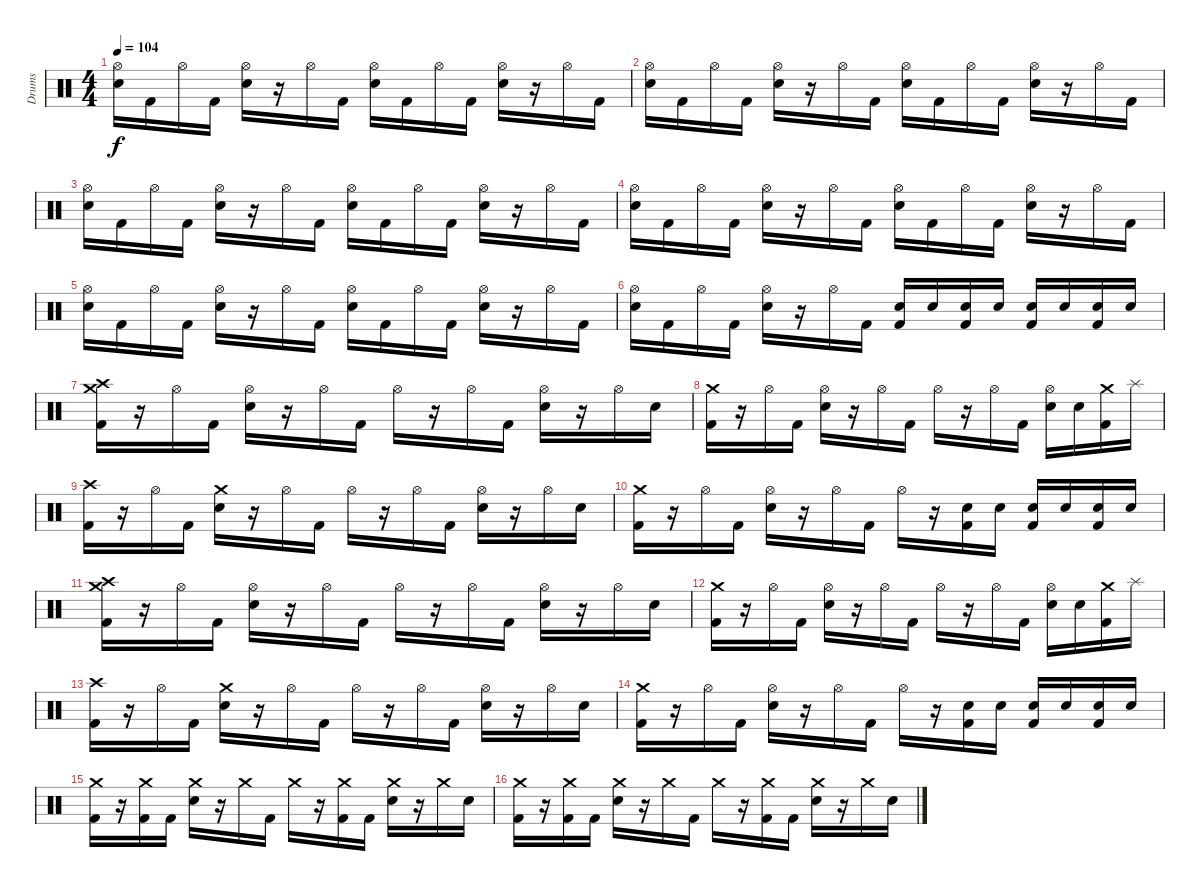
\track ("Drums" "Drums") {instrument percussion}
\staff {score}
\articulation defaults
\ts (4 4)
\tempo 104
\clef neutral
\ks c
("Hi-Hat (open)" "Snare (hit) 2").16{dy f} "Kick (hit) 2".16 "Hi-Hat (open)".16 "Kick (hit) 2".16 ("Hi-Hat (open)" "Snare (hit) 2").16 r.16 "Hi-Hat (open)".16 "Kick (hit) 2".16 ("Hi-Hat (open)" "Snare (hit) 2").16 "Kick (hit) 2".16 "Hi-Hat (open)".16 "Kick (hit) 2".16 ("Hi-Hat (open)" "Snare (hit) 2").16 r.16 "Hi-Hat (open)".16 "Kick (hit) 2".16 |
("Hi-Hat (open)" "Snare (hit) 2").16 "Kick (hit) 2".16 "Hi-Hat (open)".16 "Kick (hit) 2".16 ("Hi-Hat (open)" "Snare (hit) 2").16 r.16 "Hi-Hat (open)".16 "Kick (hit) 2".16 ("Hi-Hat (open)" "Snare (hit) 2").16 "Kick (hit) 2".16 "Hi-Hat (open)".16 "Kick (hit) 2".16 ("Hi-Hat (open)" "Snare (hit) 2").16 r.16 "Hi-Hat (open)".16 "Kick (hit) 2".16 |
("Hi-Hat (open)" "Snare (hit) 2").16 "Kick (hit) 2".16 "Hi-Hat (open)".16 "Kick (hit) 2".16 ("Hi-Hat (open)" "Snare (hit) 2").16 r.16 "Hi-Hat (open)".16 "Kick (hit) 2".16 ("Hi-Hat (open)" "Snare (hit) 2").16 "Kick (hit) 2".16 "Hi-Hat (open)".16 "Kick (hit) 2".16 ("Hi-Hat (open)" "Snare (hit) 2").16 r.16 "Hi-Hat (open)".16 "Kick (hit) 2".16 |
("Hi-Hat (open)" "Snare (hit) 2").16 "Kick (hit) 2".16 "Hi-Hat (open)".16 "Kick (hit) 2".16 ("Hi-Hat (open)" "Snare (hit) 2").16 r.16 "Hi-Hat (open)".16 "Kick (hit) 2".16 ("Hi-Hat (open)" "Snare (hit) 2").16 "Kick (hit) 2".16 "Hi-Hat (open)".16 "Kick (hit) 2".16 ("Hi-Hat (open)" "Snare (hit) 2").16 r.16 "Hi-Hat (open)".16 "Kick (hit) 2".16 |
("Hi-Hat (open)" "Snare (hit) 2").16 "Kick (hit) 2".16 "Hi-Hat (open)".16 "Kick (hit) 2".16 ("Hi-Hat (open)" "Snare (hit) 2").16 r.16 "Hi-Hat (open)".16 "Kick (hit) 2".16 ("Hi-Hat (open)" "Snare (hit) 2").16 "Kick (hit) 2".16 "Hi-Hat (open)".16 "Kick (hit) 2".16 ("Hi-Hat (open)" "Snare (hit) 2").16 r.16 "Hi-Hat (open)".16 "Kick (hit) 2".16 |
("Hi-Hat (open)" "Snare (hit) 2").16 "Kick (hit) 2".16 "Hi-Hat (open)".16 "Kick (hit) 2".16 ("Hi-Hat (open)" "Snare (hit) 2").16 r.16 "Hi-Hat (open)".16 "Kick (hit) 2".16 ("Kick (hit) 2" "Snare (hit) 2").16 "Snare (hit) 2".16 ("Kick (hit) 2" "Snare (hit) 2").16 "Snare (hit) 2".16 ("Kick (hit) 2" "Snare (hit) 2").16 "Snare (hit) 2".16 ("Kick (hit) 2" "Snare (hit) 2").16 "Snare (hit) 2".16 |
("Crash high (hit)" "Crash medium (hit)" "Kick (hit) 2").16 r.16 "Hi-Hat (open)".16 "Kick (hit) 2".16 ("Hi-Hat (open)" "Snare (hit) 2").16 r.16 "Hi-Hat (open)".16 "Kick (hit) 2".16 "Hi-Hat (open)".16 r.16 "Hi-Hat (open)".16 "Kick (hit) 2".16 ("Hi-Hat (open)" "Snare (hit) 2").16 r.16 "Hi-Hat (open)".16 "Snare (hit) 2".16 |
("Crash medium (hit)" "Kick (hit) 2").16 r.16 "Hi-Hat (open)".16 "Kick (hit) 2".16 ("Hi-Hat (open)" "Snare (hit) 2").16 r.16 "Hi-Hat (open)".16 "Kick (hit) 2".16 "Hi-Hat (open)".16 r.16 "Hi-Hat (open)".16 "Kick (hit) 2".16 ("Hi-Hat (open)" "Snare (hit) 2").16 "Snare (hit) 2".16 ("Crash medium (hit)" "Kick (hit) 2").16 "Splash (hit)".16 |
("Crash high (hit)" "Kick (hit) 2").16 r.16 "Hi-Hat (open)".16 "Kick (hit) 2".16 ("Crash medium (hit)" "Snare (hit) 2").16 r.16 "Hi-Hat (open)".16 "Kick (hit) 2".16 "Hi-Hat (open)".16 r.16 "Hi-Hat (open)".16 "Kick (hit) 2".16 ("Hi-Hat (open)" "Snare (hit) 2").16 r.16 "Hi-Hat (open)".16 "Snare (hit) 2".16 |
("Crash medium (hit)" "Kick (hit) 2").16 r.16 "Hi-Hat (open)".16 "Kick (hit) 2".16 ("Hi-Hat (open)" "Snare (hit) 2").16 r.16 "Hi-Hat (open)".16 "Kick (hit) 2".16 "Hi-Hat (open)".16 r.16 ("Snare (hit) 2" "Kick (hit) 2").16 "Snare (hit) 2".16 ("Snare (hit) 2" "Kick (hit) 2").16 "Snare (hit) 2".16 ("Snare (hit) 2" "Kick (hit) 2").16 "Snare (hit) 2".16 |
("Crash high (hit)" "Crash medium (hit)" "Kick (hit) 2").16 r.16 "Hi-Hat (open)".16 "Kick (hit) 2".16 ("Hi-Hat (open)" "Snare (hit) 2").16 r.16 "Hi-Hat (open)".16 "Kick (hit) 2".16 "Hi-Hat (open)".16 r.16 "Hi-Hat (open)".16 "Kick (hit) 2".16 ("Hi-Hat (open)" "Snare (hit) 2").16 r.16 "Hi-Hat (open)".16 "Snare (hit) 2".16 |
("Crash medium (hit)" "Kick (hit) 2").16 r.16 "Hi-Hat (open)".16 "Kick (hit) 2".16 ("Hi-Hat (open)" "Snare (hit) 2").16 r.16 "Hi-Hat (open)".16 "Kick (hit) 2".16 "Hi-Hat (open)".16 r.16 "Hi-Hat (open)".16 "Kick (hit) 2".16 ("Hi-Hat (open)" "Snare (hit) 2").16 "Snare (hit) 2".16 ("Crash medium (hit)" "Kick (hit) 2").16 "Splash (hit)".16 |
("Crash high (hit)" "Kick (hit) 2").16 r.16 "Hi-Hat (open)".16 "Kick (hit) 2".16 ("Crash medium (hit)" "Snare (hit) 2").16 r.16 "Hi-Hat (open)".16 "Kick (hit) 2".16 "Hi-Hat (open)".16 r.16 "Hi-Hat (open)".16 "Kick (hit) 2".16 ("Hi-Hat (open)" "Snare (hit) 2").16 r.16 "Hi-Hat (open)".16 "Snare (hit) 2".16 |
("Crash medium (hit)" "Kick (hit) 2").16 r.16 "Hi-Hat (open)".16 "Kick (hit) 2".16 ("Hi-Hat (open)" "Snare (hit) 2").16 r.16 "Hi-Hat (open)".16 "Kick (hit) 2".16 "Hi-Hat (open)".16 r.16 ("Snare (hit) 2" "Kick (hit) 2").16 "Snare (hit) 2".16 ("Snare (hit) 2" "Kick (hit) 2").16 "Snare (hit) 2".16 ("Snare (hit) 2" "Kick (hit) 2").16 "Snare (hit) 2".16 |
("Crash medium (hit)" "Kick (hit) 2").16 r.16 ("Crash medium (hit)" "Kick (hit) 2").16 "Kick (hit) 2".16 ("Crash medium (hit)" "Snare (hit) 2").16 r.16 "Crash medium (hit)".16 "Kick (hit) 2".16 "Crash medium (hit)".16 r.16 ("Crash medium (hit)" "Kick (hit) 2").16 "Kick (hit) 2".16 ("Crash medium (hit)" "Snare (hit) 2").16 r.16 "Crash medium (hit)".16 "Snare (hit) 2".16 |
("Crash medium (hit)" "Kick (hit) 2").16 r.16 ("Crash medium (hit)" "Kick (hit) 2").16 "Kick (hit) 2".16 ("Crash medium (hit)" "Snare (hit) 2").16 r.16 "Crash medium (hit)".16 "Kick (hit) 2".16 "Crash medium (hit)".16 r.16 ("Crash medium (hit)" "Kick (hit) 2").16 "Kick (hit) 2".16 ("Crash medium (hit)" "Snare (hit) 2").16 r.16 "Crash medium (hit)".16 "Snare (hit) 2".16
